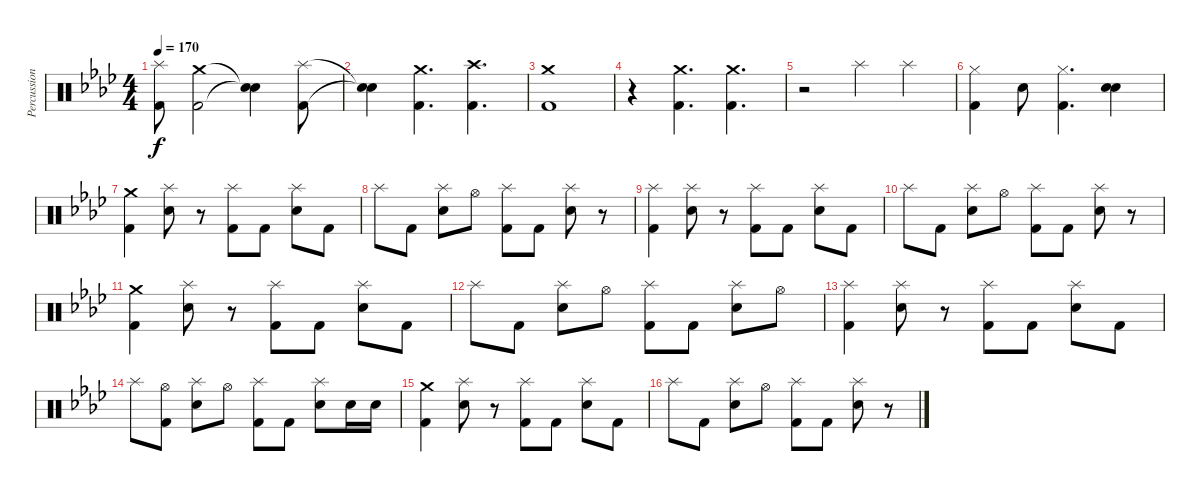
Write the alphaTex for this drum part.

\track ("Percussion" "Percussion") {instrument percussion}
\staff {score}
\articulation defaults
\ts (4 4)
\tempo 170
\clef neutral
\ks ab
("Splash (hit)" "Kick (hit) 2").8{dy f} ("Crash medium (hit)" "Kick (hit) 2").2 ("Snare (hit)"{t} "Snare (hit)"{t}).4 ("Splash (hit)" "Kick (hit) 2").8 |
("Snare (hit)"{t} "Snare (hit)"{t}).4 ("Crash medium (hit)" "Kick (hit) 2").4{d} ("Crash high (hit)" "Kick (hit) 2").4{d} |
("Crash medium (hit)" "Kick (hit) 2").1 |
r.4 ("Crash medium (hit)" "Kick (hit) 2").4{d} ("Crash medium (hit)" "Kick (hit) 2").4{d} |
r.2 "Splash (hit)".4 "Splash (hit)".4 |
("Hi-Hat (closed)" "Kick (hit) 2").4 "Electric Snare (hit)".8 ("Hi-Hat (closed)" "Kick (hit) 2").4{d} ("Electric Snare (hit)" "Electric Snare (hit)").4 |
("Crash medium (hit)" "Kick (hit) 2").4 ("Splash (hit)" "Electric Snare (hit)").8 r.8 ("Splash (hit)" "Kick (hit) 2").8 "Kick (hit) 2".8 ("Splash (hit)" "Electric Snare (hit)").8 "Kick (hit) 2".8 |
"Splash (hit)".8 "Kick (hit) 2".8 ("Splash (hit)" "Electric Snare (hit)").8 "Hi-Hat (open)".8 ("Splash (hit)" "Kick (hit) 2").8 "Kick (hit) 2".8 ("Splash (hit)" "Electric Snare (hit)").8 r.8 |
("Splash (hit)" "Kick (hit) 2").4 ("Splash (hit)" "Electric Snare (hit)").8 r.8 ("Splash (hit)" "Kick (hit) 2").8 "Kick (hit) 2".8 ("Splash (hit)" "Electric Snare (hit)").8 "Kick (hit) 2".8 |
"Splash (hit)".8 "Kick (hit) 2".8 ("Splash (hit)" "Electric Snare (hit)").8 "Hi-Hat (open)".8 ("Splash (hit)" "Kick (hit) 2").8 "Kick (hit) 2".8 ("Splash (hit)" "Electric Snare (hit)").8 r.8 |
("Crash medium (hit)" "Kick (hit) 2").4 ("Splash (hit)" "Electric Snare (hit)").8 r.8 ("Splash (hit)" "Kick (hit) 2").8 "Kick (hit) 2".8 ("Splash (hit)" "Electric Snare (hit)").8 "Kick (hit) 2".8 |
"Splash (hit)".8 "Kick (hit) 2".8 ("Splash (hit)" "Electric Snare (hit)").8 "Hi-Hat (open)".8 ("Splash (hit)" "Kick (hit) 2").8 "Kick (hit) 2".8 ("Splash (hit)" "Electric Snare (hit)").8 "Hi-Hat (open)".8 |
("Splash (hit)" "Kick (hit) 2").4 ("Splash (hit)" "Electric Snare (hit)").8 r.8 ("Splash (hit)" "Kick (hit) 2").8 "Kick (hit) 2".8 ("Splash (hit)" "Electric Snare (hit)").8 "Kick (hit) 2".8 |
"Splash (hit)".8 ("Hi-Hat (open)" "Kick (hit) 2").8 ("Splash (hit)" "Electric Snare (hit)").8 "Hi-Hat (open)".8 ("Splash (hit)" "Kick (hit) 2").8 "Kick (hit) 2".8 ("Splash (hit)" "Electric Snare (hit)").8 "Electric Snare (hit)".16 "Electric Snare (hit)".16 |
("Crash medium (hit)" "Kick (hit) 2").4 ("Splash (hit)" "Electric Snare (hit)").8 r.8 ("Splash (hit)" "Kick (hit) 2").8 "Kick (hit) 2".8 ("Splash (hit)" "Electric Snare (hit)").8 "Kick (hit) 2".8 |
"Splash (hit)".8 "Kick (hit) 2".8 ("Splash (hit)" "Electric Snare (hit)").8 "Hi-Hat (open)".8 ("Splash (hit)" "Kick (hit) 2").8 "Kick (hit) 2".8 ("Splash (hit)" "Electric Snare (hit)").8 r.8
